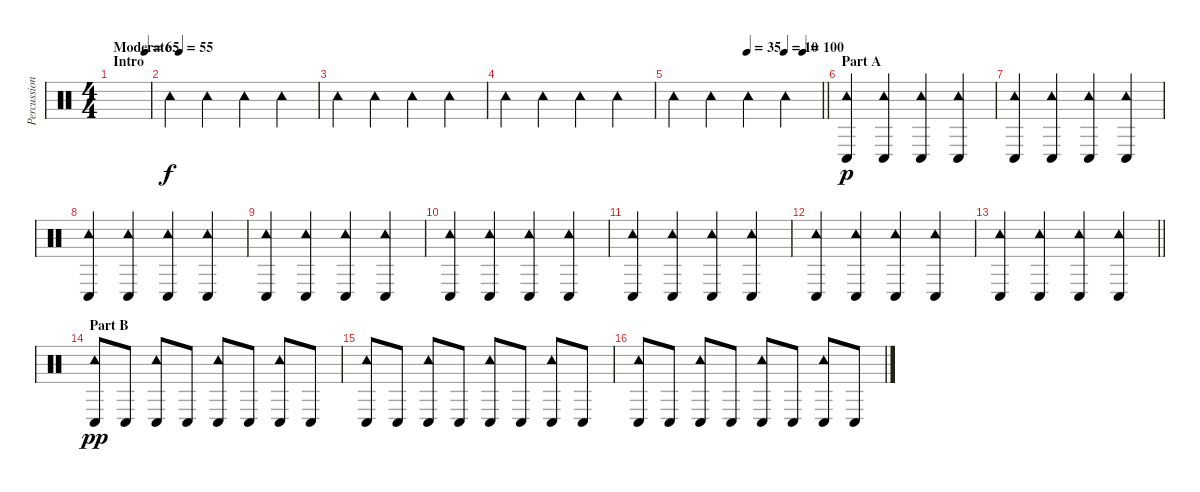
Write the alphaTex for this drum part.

\track ("Percussion" "Percussion") {instrument percussion}
\staff {score}
\articulation defaults
\ts (4 4)
\section ("" "Intro")
\tempo (55 "Moderate")
\tempo (65 0.875)
\tempo (55 "Moderate")
\clef neutral
\ks c
|
"Tambourine (hit)".4 "Tambourine (hit)".4 "Tambourine (hit)".4 "Tambourine (hit)".4 |
"Tambourine (hit)".4 "Tambourine (hit)".4 "Tambourine (hit)".4 "Tambourine (hit)".4 |
"Tambourine (hit)".4 "Tambourine (hit)".4 "Tambourine (hit)".4 "Tambourine (hit)".4 |
\tempo (35 0.5)
\tempo (10 0.75)
\tempo (100 0.875)
\barLineRight lightlight "Tambourine (hit)".4 "Tambourine (hit)".4 "Tambourine (hit)".4 "Tambourine (hit)".4
|
\section ("" "Part A")
("Tambourine (hit)" "Conga low (hit)").4{dy p} ("Tambourine (hit)" "Conga low (hit)").4 ("Tambourine (hit)" "Conga low (hit)").4 ("Tambourine (hit)" "Conga low (hit)").4 |
("Tambourine (hit)" "Conga low (hit)").4 ("Tambourine (hit)" "Conga low (hit)").4 ("Tambourine (hit)" "Conga low (hit)").4 ("Tambourine (hit)" "Conga low (hit)").4 |
("Tambourine (hit)" "Conga low (hit)").4 ("Tambourine (hit)" "Conga low (hit)").4 ("Tambourine (hit)" "Conga low (hit)").4 ("Tambourine (hit)" "Conga low (hit)").4 |
("Tambourine (hit)" "Conga low (hit)").4 ("Tambourine (hit)" "Conga low (hit)").4 ("Tambourine (hit)" "Conga low (hit)").4 ("Tambourine (hit)" "Conga low (hit)").4 |
("Tambourine (hit)" "Conga low (hit)").4 ("Tambourine (hit)" "Conga low (hit)").4 ("Tambourine (hit)" "Conga low (hit)").4 ("Tambourine (hit)" "Conga low (hit)").4 |
("Tambourine (hit)" "Conga low (hit)").4 ("Tambourine (hit)" "Conga low (hit)").4 ("Tambourine (hit)" "Conga low (hit)").4 ("Tambourine (hit)" "Conga low (hit)").4 |
("Tambourine (hit)" "Conga low (hit)").4 ("Tambourine (hit)" "Conga low (hit)").4 ("Tambourine (hit)" "Conga low (hit)").4 ("Tambourine (hit)" "Conga low (hit)").4 |
\barLineRight lightlight
("Tambourine (hit)" "Conga low (hit)").4 ("Tambourine (hit)" "Conga low (hit)").4 ("Tambourine (hit)" "Conga low (hit)").4 ("Tambourine (hit)" "Conga low (hit)").4 |
\section ("" "Part B")
("Tambourine (hit)" "Conga low (hit)").8{dy pp} "Conga low (hit)".8 ("Tambourine (hit)" "Conga low (hit)").8 "Conga low (hit)".8 ("Tambourine (hit)" "Conga low (hit)").8 "Conga low (hit)".8 ("Tambourine (hit)" "Conga low (hit)").8 "Conga low (hit)".8 |
("Tambourine (hit)" "Conga low (hit)").8 "Conga low (hit)".8 ("Tambourine (hit)" "Conga low (hit)").8 "Conga low (hit)".8 ("Tambourine (hit)" "Conga low (hit)").8 "Conga low (hit)".8 ("Tambourine (hit)" "Conga low (hit)").8 "Conga low (hit)".8 |
("Tambourine (hit)" "Conga low (hit)").8 "Conga low (hit)".8 ("Tambourine (hit)" "Conga low (hit)").8 "Conga low (hit)".8 ("Tambourine (hit)" "Conga low (hit)").8 "Conga low (hit)".8 ("Tambourine (hit)" "Conga low (hit)").8 "Conga low (hit)".8
